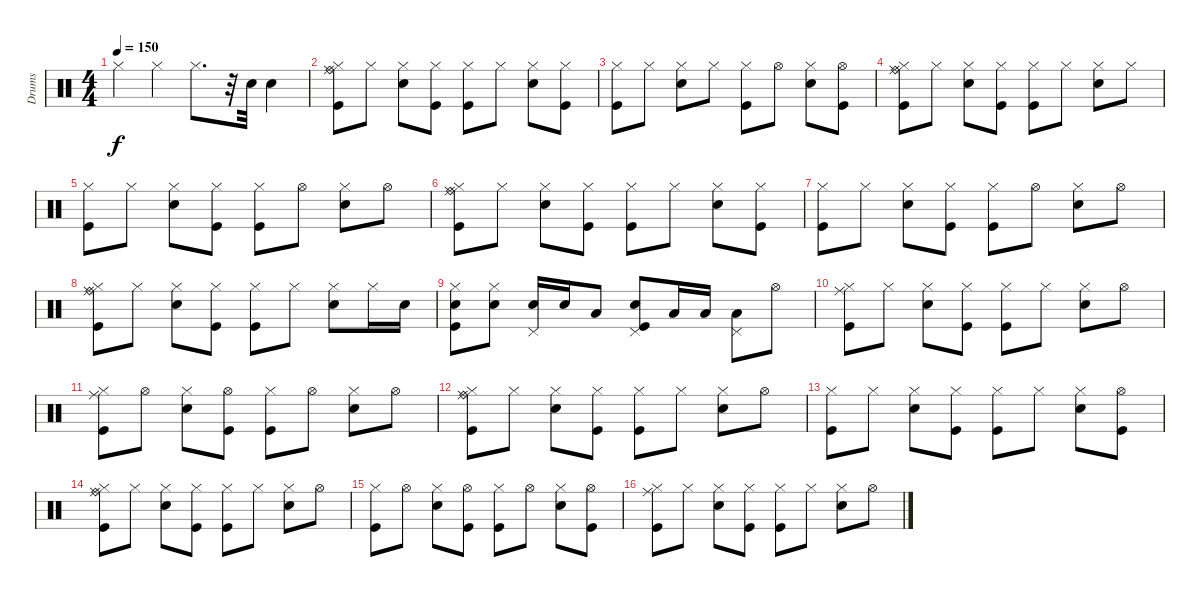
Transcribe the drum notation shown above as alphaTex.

\track ("Drums" "Drums") {instrument percussion}
\staff {score}
\articulation defaults
\ts (4 4)
\tempo 150
\clef neutral
\ks c "Hi-Hat (closed)".4{dy f} "Hi-Hat (closed)".4 "Hi-Hat (closed)".8{d}
r.32 "Snare (hit) 2".32 "Snare (hit) 2".4 |
("Kick (hit)" "Hi-Hat (closed)" "Ride (middle)" "Ride (bell)").8 "Hi-Hat (closed)".8 ("Snare (hit) 2" "Hi-Hat (closed)").8 ("Kick (hit)" "Hi-Hat (closed)").8 ("Kick (hit)" "Hi-Hat (closed)").8 "Hi-Hat (closed)".8 ("Snare (hit) 2" "Hi-Hat (closed)").8 ("Kick (hit)" "Hi-Hat (closed)").8 |
("Kick (hit)" "Hi-Hat (closed)").8 "Hi-Hat (closed)".8 ("Snare (hit) 2" "Hi-Hat (closed)").8 "Hi-Hat (closed)".8 ("Kick (hit)" "Hi-Hat (closed)").8 "Hi-Hat (open)".8 ("Snare (hit) 2" "Hi-Hat (closed)").8 ("Kick (hit)" "Hi-Hat (open)").8 |
("Kick (hit)" "Hi-Hat (closed)" "Ride (middle)" "Ride (bell)").8 "Hi-Hat (closed)".8 ("Snare (hit) 2" "Hi-Hat (closed)").8 ("Kick (hit)" "Hi-Hat (closed)").8 ("Kick (hit)" "Hi-Hat (closed)").8 "Hi-Hat (closed)".8 ("Snare (hit) 2" "Hi-Hat (closed)").8 "Hi-Hat (closed)".8 |
("Kick (hit)" "Hi-Hat (closed)").8 "Hi-Hat (closed)".8 ("Snare (hit) 2" "Hi-Hat (closed)").8 ("Kick (hit)" "Hi-Hat (closed)").8 ("Kick (hit)" "Hi-Hat (closed)").8 "Hi-Hat (open)".8 ("Snare (hit) 2" "Hi-Hat (closed)").8 "Hi-Hat (open)".8 |
("Kick (hit)" "Hi-Hat (closed)" "Ride (middle)" "Ride (bell)").8 "Hi-Hat (closed)".8 ("Snare (hit) 2" "Hi-Hat (closed)").8 ("Kick (hit)" "Hi-Hat (closed)").8 ("Kick (hit)" "Hi-Hat (closed)").8 "Hi-Hat (closed)".8 ("Snare (hit) 2" "Hi-Hat (closed)").8 ("Kick (hit)" "Hi-Hat (closed)").8 |
("Kick (hit)" "Hi-Hat (closed)").8 "Hi-Hat (closed)".8 ("Snare (hit) 2" "Hi-Hat (closed)").8 ("Kick (hit)" "Hi-Hat (closed)").8 ("Kick (hit)" "Hi-Hat (closed)").8 "Hi-Hat (open)".8 ("Snare (hit) 2" "Hi-Hat (closed)").8 "Hi-Hat (open)".8 |
("Hi-Hat (closed)" "Ride (middle)" "Kick (hit)" "Ride (bell)").8 "Hi-Hat (closed)".8 ("Snare (hit) 2" "Hi-Hat (closed)").8 ("Kick (hit)" "Hi-Hat (closed)").8 ("Kick (hit)" "Hi-Hat (closed)").8 "Hi-Hat (closed)".8 ("Snare (hit) 2" "Hi-Hat (closed)").8 "Hi-Hat (closed)".16 "Snare (hit) 2".16 |
("Hi-Hat (closed)" "Kick (hit)" "Snare (hit) 2").8 ("Snare (hit) 2" "Hi-Hat (closed)").8 ("Snare (hit) 2" "Pedal Hi-Hat (hit)").16 "Snare (hit) 2".16 "Low Floor Tom (hit)".8 ("Kick (hit)" "Snare (hit) 2" "Pedal Hi-Hat (hit)").8 "Low Tom (hit)".16 "Low Tom (hit)".16 ("Low Floor Tom (hit)" "Pedal Hi-Hat (hit)").8 "Hi-Hat (open)".8 |
("Kick (hit)" "Hi-Hat (closed)" "Ride (middle)").8 "Hi-Hat (closed)".8 ("Snare (hit) 2" "Hi-Hat (closed)").8 ("Kick (hit)" "Hi-Hat (closed)").8 ("Kick (hit)" "Hi-Hat (closed)").8 "Hi-Hat (closed)".8 ("Snare (hit) 2" "Hi-Hat (closed)").8 "Hi-Hat (open)".8 |
("Ride (middle)" "Kick (hit)" "Hi-Hat (closed)").8 "Hi-Hat (open)".8 ("Snare (hit) 2" "Hi-Hat (closed)").8 ("Kick (hit)" "Hi-Hat (open)").8 ("Kick (hit)" "Hi-Hat (closed)").8 "Hi-Hat (open)".8 ("Snare (hit) 2" "Hi-Hat (closed)").8 "Hi-Hat (open)".8 |
("Hi-Hat (closed)" "Ride (middle)" "Kick (hit)" "Ride (bell)").8 "Hi-Hat (closed)".8 ("Snare (hit) 2" "Hi-Hat (closed)").8 ("Kick (hit)" "Hi-Hat (closed)").8 ("Kick (hit)" "Hi-Hat (closed)").8 "Hi-Hat (closed)".8 ("Snare (hit) 2" "Hi-Hat (closed)").8 "Hi-Hat (open)".8 |
("Kick (hit)" "Hi-Hat (closed)").8 "Hi-Hat (closed)".8 ("Snare (hit) 2" "Hi-Hat (closed)").8 ("Kick (hit)" "Hi-Hat (closed)").8 ("Kick (hit)" "Hi-Hat (closed)").8 "Hi-Hat (closed)".8 ("Snare (hit) 2" "Hi-Hat (closed)").8 ("Kick (hit)" "Hi-Hat (open)").8 |
("Ride (bell)" "Kick (hit)" "Ride (middle)" "Hi-Hat (closed)").8 "Hi-Hat (closed)".8 ("Snare (hit) 2" "Hi-Hat (closed)").8 ("Kick (hit)" "Hi-Hat (closed)").8 ("Kick (hit)" "Hi-Hat (closed)").8 "Hi-Hat (closed)".8 ("Snare (hit) 2" "Hi-Hat (closed)").8 "Hi-Hat (open)".8 |
("Kick (hit)" "Hi-Hat (closed)").8 "Hi-Hat (open)".8 ("Snare (hit) 2" "Hi-Hat (closed)").8 ("Kick (hit)" "Hi-Hat (open)").8 ("Kick (hit)" "Hi-Hat (closed)").8 "Hi-Hat (open)".8 ("Snare (hit) 2" "Hi-Hat (closed)").8 ("Kick (hit)" "Hi-Hat (open)").8 |
("Ride (middle)" "Kick (hit)" "Hi-Hat (closed)").8 "Hi-Hat (closed)".8 ("Snare (hit) 2" "Hi-Hat (closed)").8 ("Kick (hit)" "Hi-Hat (closed)").8 ("Kick (hit)" "Hi-Hat (closed)").8 "Hi-Hat (closed)".8 ("Snare (hit) 2" "Hi-Hat (closed)").8 "Hi-Hat (open)".8
